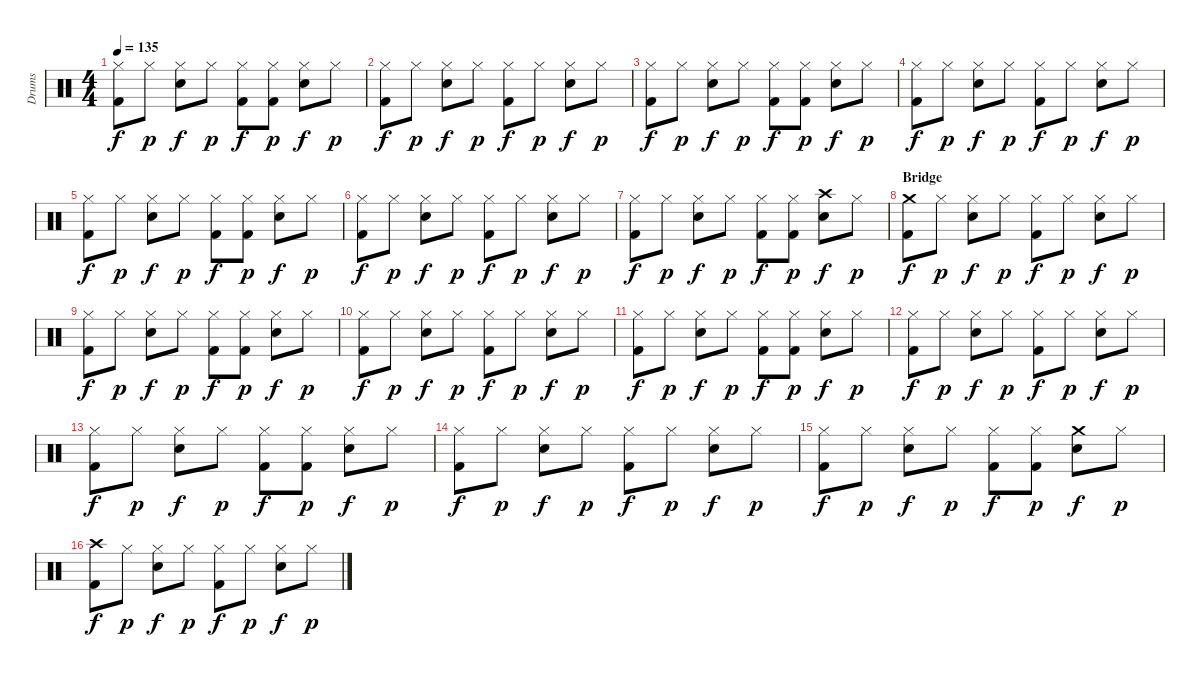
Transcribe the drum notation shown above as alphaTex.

\track ("Drums" "Drums") {instrument percussion}
\staff {score}
\articulation defaults
\ts (4 4)
\tempo 135
\clef neutral
\ks c
("Hi-Hat (closed)" "Kick (hit) 2").8{dy f} "Hi-Hat (closed)".8{dy p} ("Hi-Hat (closed)" "Snare (hit) 2").8{dy f} "Hi-Hat (closed)".8{dy p} ("Hi-Hat (closed)" "Kick (hit) 2").8{dy f} ("Hi-Hat (closed)" "Kick (hit) 2").8{dy p} ("Hi-Hat (closed)" "Snare (hit) 2").8{dy f} "Hi-Hat (closed)".8{dy p} |
("Hi-Hat (closed)" "Kick (hit) 2").8{dy f} "Hi-Hat (closed)".8{dy p} ("Hi-Hat (closed)" "Snare (hit) 2").8{dy f} "Hi-Hat (closed)".8{dy p} ("Hi-Hat (closed)" "Kick (hit) 2").8{dy f} "Hi-Hat (closed)".8{dy p} ("Hi-Hat (closed)" "Snare (hit) 2").8{dy f} "Hi-Hat (closed)".8{dy p} |
("Hi-Hat (closed)" "Kick (hit) 2").8{dy f} "Hi-Hat (closed)".8{dy p} ("Hi-Hat (closed)" "Snare (hit) 2").8{dy f} "Hi-Hat (closed)".8{dy p} ("Hi-Hat (closed)" "Kick (hit) 2").8{dy f} ("Hi-Hat (closed)" "Kick (hit) 2").8{dy p} ("Hi-Hat (closed)" "Snare (hit) 2").8{dy f} "Hi-Hat (closed)".8{dy p} |
("Hi-Hat (closed)" "Kick (hit) 2").8{dy f} "Hi-Hat (closed)".8{dy p} ("Hi-Hat (closed)" "Snare (hit) 2").8{dy f} "Hi-Hat (closed)".8{dy p} ("Hi-Hat (closed)" "Kick (hit) 2").8{dy f} "Hi-Hat (closed)".8{dy p} ("Hi-Hat (closed)" "Snare (hit) 2").8{dy f} "Hi-Hat (closed)".8{dy p} |
("Hi-Hat (closed)" "Kick (hit) 2").8{dy f} "Hi-Hat (closed)".8{dy p} ("Hi-Hat (closed)" "Snare (hit) 2").8{dy f} "Hi-Hat (closed)".8{dy p} ("Hi-Hat (closed)" "Kick (hit) 2").8{dy f} ("Hi-Hat (closed)" "Kick (hit) 2").8{dy p} ("Hi-Hat (closed)" "Snare (hit) 2").8{dy f} "Hi-Hat (closed)".8{dy p} |
("Hi-Hat (closed)" "Kick (hit) 2").8{dy f} "Hi-Hat (closed)".8{dy p} ("Hi-Hat (closed)" "Snare (hit) 2").8{dy f} "Hi-Hat (closed)".8{dy p} ("Hi-Hat (closed)" "Kick (hit) 2").8{dy f} "Hi-Hat (closed)".8{dy p} ("Hi-Hat (closed)" "Snare (hit) 2").8{dy f} "Hi-Hat (closed)".8{dy p} |
("Hi-Hat (closed)" "Kick (hit) 2").8{dy f} "Hi-Hat (closed)".8{dy p} ("Hi-Hat (closed)" "Snare (hit) 2").8{dy f} "Hi-Hat (closed)".8{dy p} ("Hi-Hat (closed)" "Kick (hit) 2").8{dy f} ("Hi-Hat (closed)" "Kick (hit) 2").8{dy p} ("Crash high (hit)" "Snare (hit) 2").8{dy f} "Hi-Hat (closed)".8{dy p} |
\section ("" "Bridge")
("Crash medium (hit)" "Kick (hit) 2").8{dy f} "Hi-Hat (closed)".8{dy p} ("Hi-Hat (closed)" "Snare (hit) 2").8{dy f} "Hi-Hat (closed)".8{dy p} ("Hi-Hat (closed)" "Kick (hit) 2").8{dy f} "Hi-Hat (closed)".8{dy p} ("Hi-Hat (closed)" "Snare (hit) 2").8{dy f} "Hi-Hat (closed)".8{dy p} |
("Hi-Hat (closed)" "Kick (hit) 2").8{dy f} "Hi-Hat (closed)".8{dy p} ("Hi-Hat (closed)" "Snare (hit) 2").8{dy f} "Hi-Hat (closed)".8{dy p} ("Hi-Hat (closed)" "Kick (hit) 2").8{dy f} ("Hi-Hat (closed)" "Kick (hit) 2").8{dy p} ("Hi-Hat (closed)" "Snare (hit) 2").8{dy f} "Hi-Hat (closed)".8{dy p} |
("Hi-Hat (closed)" "Kick (hit) 2").8{dy f} "Hi-Hat (closed)".8{dy p} ("Hi-Hat (closed)" "Snare (hit) 2").8{dy f} "Hi-Hat (closed)".8{dy p} ("Hi-Hat (closed)" "Kick (hit) 2").8{dy f} "Hi-Hat (closed)".8{dy p} ("Hi-Hat (closed)" "Snare (hit) 2").8{dy f} "Hi-Hat (closed)".8{dy p} |
("Hi-Hat (closed)" "Kick (hit) 2").8{dy f} "Hi-Hat (closed)".8{dy p} ("Hi-Hat (closed)" "Snare (hit) 2").8{dy f} "Hi-Hat (closed)".8{dy p} ("Hi-Hat (closed)" "Kick (hit) 2").8{dy f} ("Hi-Hat (closed)" "Kick (hit) 2").8{dy p} ("Hi-Hat (closed)" "Snare (hit) 2").8{dy f} "Hi-Hat (closed)".8{dy p} |
("Hi-Hat (closed)" "Kick (hit) 2").8{dy f} "Hi-Hat (closed)".8{dy p} ("Hi-Hat (closed)" "Snare (hit) 2").8{dy f} "Hi-Hat (closed)".8{dy p} ("Hi-Hat (closed)" "Kick (hit) 2").8{dy f} "Hi-Hat (closed)".8{dy p} ("Hi-Hat (closed)" "Snare (hit) 2").8{dy f} "Hi-Hat (closed)".8{dy p} |
("Hi-Hat (closed)" "Kick (hit) 2").8{dy f} "Hi-Hat (closed)".8{dy p} ("Hi-Hat (closed)" "Snare (hit) 2").8{dy f} "Hi-Hat (closed)".8{dy p} ("Hi-Hat (closed)" "Kick (hit) 2").8{dy f} ("Hi-Hat (closed)" "Kick (hit) 2").8{dy p} ("Hi-Hat (closed)" "Snare (hit) 2").8{dy f} "Hi-Hat (closed)".8{dy p} |
("Hi-Hat (closed)" "Kick (hit) 2").8{dy f} "Hi-Hat (closed)".8{dy p} ("Hi-Hat (closed)" "Snare (hit) 2").8{dy f} "Hi-Hat (closed)".8{dy p} ("Hi-Hat (closed)" "Kick (hit) 2").8{dy f} "Hi-Hat (closed)".8{dy p} ("Hi-Hat (closed)" "Snare (hit) 2").8{dy f} "Hi-Hat (closed)".8{dy p} |
("Hi-Hat (closed)" "Kick (hit) 2").8{dy f} "Hi-Hat (closed)".8{dy p} ("Hi-Hat (closed)" "Snare (hit) 2").8{dy f} "Hi-Hat (closed)".8{dy p} ("Hi-Hat (closed)" "Kick (hit) 2").8{dy f} ("Hi-Hat (closed)" "Kick (hit) 2").8{dy p} ("Crash medium (hit)" "Snare (hit) 2").8{dy f} "Hi-Hat (closed)".8{dy p} |
("Crash high (hit)" "Kick (hit) 2").8{dy f} "Hi-Hat (closed)".8{dy p} ("Hi-Hat (closed)" "Snare (hit) 2").8{dy f} "Hi-Hat (closed)".8{dy p} ("Hi-Hat (closed)" "Kick (hit) 2").8{dy f} "Hi-Hat (closed)".8{dy p} ("Hi-Hat (closed)" "Snare (hit) 2").8{dy f} "Hi-Hat (closed)".8{dy p}
